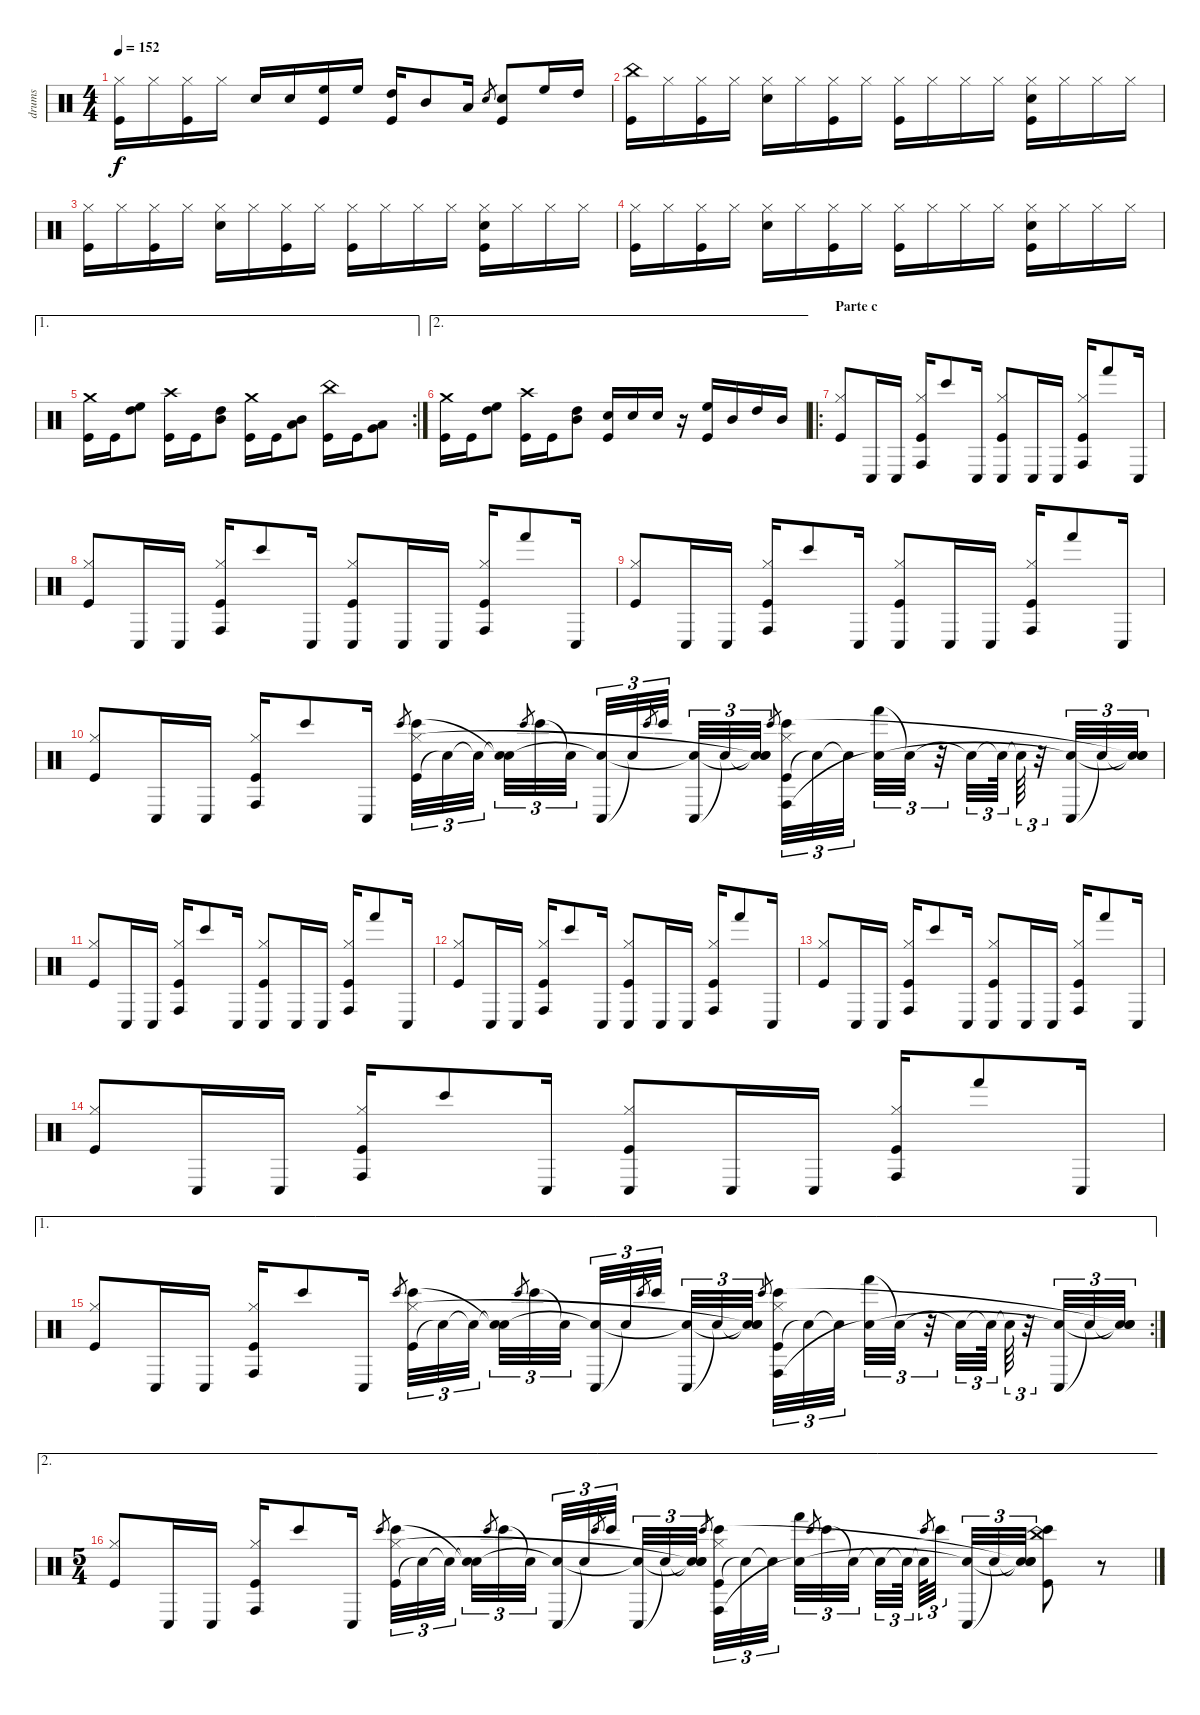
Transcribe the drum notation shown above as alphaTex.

\track ("drums" "drums") {instrument percussion}
\staff {score}
\articulation defaults
\ts (4 4)
\tempo 152
\clef neutral
\ks c
("Kick (hit)" "Hi-Hat (closed)").16{dy f} "Hi-Hat (closed)".16 ("Kick (hit)" "Hi-Hat (closed)").16 "Hi-Hat (closed)".16 "Snare (hit) 2".16 "Snare (hit) 2".16 ("Kick (hit)" "High Floor Tom (hit)").16 "High Floor Tom (hit)".16 ("Kick (hit)" "High Tom (hit)").16 "Mid Tom (hit)".8 "Low Tom (hit)".16 "Snare (hit) 2".8{gr} ("Kick (hit)" "Snare (hit) 2").8 "High Floor Tom (hit)".16 "High Tom (hit)".16 |
("Kick (hit)" "China (hit)").16 "Hi-Hat (closed)".16 ("Kick (hit)" "Hi-Hat (closed)").16 "Hi-Hat (closed)".16 ("Snare (hit) 2" "Hi-Hat (closed)").16 "Hi-Hat (closed)".16 ("Kick (hit)" "Hi-Hat (closed)").16 "Hi-Hat (closed)".16 ("Kick (hit)" "Hi-Hat (closed)").16 "Hi-Hat (closed)".16 "Hi-Hat (closed)".16 "Hi-Hat (closed)".16 ("Kick (hit)" "Snare (hit) 2" "Hi-Hat (closed)").16 "Hi-Hat (closed)".16 "Hi-Hat (closed)".16 "Hi-Hat (closed)".16 |
("Kick (hit)" "Hi-Hat (closed)").16 "Hi-Hat (closed)".16 ("Kick (hit)" "Hi-Hat (closed)").16 "Hi-Hat (closed)".16 ("Snare (hit) 2" "Hi-Hat (closed)").16 "Hi-Hat (closed)".16 ("Kick (hit)" "Hi-Hat (closed)").16 "Hi-Hat (closed)".16 ("Kick (hit)" "Hi-Hat (closed)").16 "Hi-Hat (closed)".16 "Hi-Hat (closed)".16 "Hi-Hat (closed)".16 ("Kick (hit)" "Snare (hit) 2" "Hi-Hat (closed)").16 "Hi-Hat (closed)".16 "Hi-Hat (closed)".16 "Hi-Hat (closed)".16 |
("Kick (hit)" "Hi-Hat (closed)").16 "Hi-Hat (closed)".16 ("Kick (hit)" "Hi-Hat (closed)").16 "Hi-Hat (closed)".16 ("Snare (hit) 2" "Hi-Hat (closed)").16 "Hi-Hat (closed)".16 ("Kick (hit)" "Hi-Hat (closed)").16 "Hi-Hat (closed)".16 ("Kick (hit)" "Hi-Hat (closed)").16 "Hi-Hat (closed)".16 "Hi-Hat (closed)".16 "Hi-Hat (closed)".16 ("Kick (hit)" "Snare (hit) 2" "Hi-Hat (closed)").16 "Hi-Hat (closed)".16 "Hi-Hat (closed)".16 "Hi-Hat (closed)".16 |
\ae 1
\rc 2
("Kick (hit)" "Crash medium (hit)").16 "Kick (hit)".16 ("High Tom (hit)" "High Floor Tom (hit)").8 ("Kick (hit)" "Crash high (hit)").16 "Kick (hit)".16 ("Mid Tom (hit)" "High Tom (hit)").8 ("Kick (hit)" "Crash medium (hit)").16 "Kick (hit)".16 ("Low Tom (hit)" "Mid Tom (hit)").8 ("Kick (hit)" "China (hit)").16 "Kick (hit)".16 ("Very Low Tom (hit)" "Low Tom (hit)").8 |
\ae 2
("Kick (hit)" "Crash medium (hit)").16 "Kick (hit)".16 ("High Tom (hit)" "High Floor Tom (hit)").8 ("Kick (hit)" "Crash high (hit)").16 "Kick (hit)".16 ("Mid Tom (hit)" "High Tom (hit)").8 ("Kick (hit)" "Snare (hit) 2").16 "Snare (hit) 2".16 "Snare (hit) 2".16 r.16 ("Kick (hit)" "High Floor Tom (hit)").16 "Mid Tom (hit)".16 "High Tom (hit)".16 "Mid Tom (hit)".16 |
\ro
\section ("" "Parte c")
("Kick (hit)" "Hi-Hat (closed)").8 "Conga low (hit)".16 "Conga low (hit)".16 ("Kick (hit)" "Conga high (hit)" "Hi-Hat (closed)").16 "Bongo High (hit)".8 "Conga low (hit)".16 ("Kick (hit)" "Conga low (hit)" "Hi-Hat (closed)").8 "Conga low (hit)".16 "Conga low (hit)".16 ("Kick (hit)" "Conga high (hit)" "Hi-Hat (closed)").16 "Hand (hit)".8 "Conga low (hit)".16 |
("Kick (hit)" "Hi-Hat (closed)").8 "Conga low (hit)".16 "Conga low (hit)".16 ("Kick (hit)" "Conga high (hit)" "Hi-Hat (closed)").16 "Bongo High (hit)".8 "Conga low (hit)".16 ("Kick (hit)" "Conga low (hit)" "Hi-Hat (closed)").8 "Conga low (hit)".16 "Conga low (hit)".16 ("Kick (hit)" "Conga high (hit)" "Hi-Hat (closed)").16 "Hand (hit)".8 "Conga low (hit)".16 |
("Kick (hit)" "Hi-Hat (closed)").8 "Conga low (hit)".16 "Conga low (hit)".16 ("Kick (hit)" "Conga high (hit)" "Hi-Hat (closed)").16 "Bongo High (hit)".8 "Conga low (hit)".16 ("Kick (hit)" "Conga low (hit)" "Hi-Hat (closed)").8 "Conga low (hit)".16 "Conga low (hit)".16 ("Kick (hit)" "Conga high (hit)" "Hi-Hat (closed)").16 "Hand (hit)".8 "Conga low (hit)".16 |
("Kick (hit)" "Hi-Hat (closed)").8 "Conga low (hit)".16 "Conga low (hit)".16 ("Kick (hit)" "Conga high (hit)" "Hi-Hat (closed)").16 "Bongo High (hit)".8 "Conga low (hit)".16 "Bongo High (hit)".8{gr} ("Kick (hit)" "Bongo High (hit)" "Hi-Hat (closed)").32{tu (3 2)} "Snare (hit)"{t}.32{tu (3 2)} "Snare (hit)"{t}.32{tu (3 2)} ("Snare (hit)"{t} "Snare (hit)"{t}).32{tu (3 2)} "Bongo High (hit)".8{gr} "Bongo High (hit)".32{tu (3 2)} "Snare (hit)"{t}.32{tu (3 2)} ("Conga low (hit)" "Snare (hit)"{t}).32{tu (3 2)} "Snare (hit)"{t}.32{tu (3 2)} "Bongo High (hit)".8{gr} "Bongo High (hit)".32{tu (3 2)} ("Conga low (hit)" "Snare (hit)"{t}).32{tu (3 2)} "Snare (hit)"{t}.32{tu (3 2)} ("Snare (hit)"{t} "Snare (hit)"{t} "Snare (hit)"{t}).32{tu (3 2)} "Bongo High (hit)".8{gr} ("Kick (hit)" "Conga high (hit)" "Bongo High (hit)" "Hi-Hat (closed)").32{tu (3 2)} "Snare (hit)"{t}.32{tu (3 2)} "Snare (hit)"{t}.32{tu (3 2)} ("Hand (hit)" "Snare (hit)"{t}).32{tu (3 2)} "Snare (hit)"{t}.32{tu (3 2)} r.32{tu (3 2)} "Snare (hit)"{t}.32{tu (3 2)} "Snare (hit)"{t}.64{tu (3 2)} "Snare (hit)"{t}.64{tu (3 2)} r.32{tu (3 2)} ("Conga low (hit)" "Snare (hit)"{t}).32{tu (3 2)} "Snare (hit)"{t}.32{tu (3 2)} ("Snare (hit)"{t} "Snare (hit)"{t} "Snare (hit)"{t}).32{tu (3 2)} |
("Kick (hit)" "Hi-Hat (closed)").8 "Conga low (hit)".16 "Conga low (hit)".16 ("Kick (hit)" "Conga high (hit)" "Hi-Hat (closed)").16 "Bongo High (hit)".8 "Conga low (hit)".16 ("Kick (hit)" "Conga low (hit)" "Hi-Hat (closed)").8 "Conga low (hit)".16 "Conga low (hit)".16 ("Kick (hit)" "Conga high (hit)" "Hi-Hat (closed)").16 "Hand (hit)".8 "Conga low (hit)".16 |
("Kick (hit)" "Hi-Hat (closed)").8 "Conga low (hit)".16 "Conga low (hit)".16 ("Kick (hit)" "Conga high (hit)" "Hi-Hat (closed)").16 "Bongo High (hit)".8 "Conga low (hit)".16 ("Kick (hit)" "Conga low (hit)" "Hi-Hat (closed)").8 "Conga low (hit)".16 "Conga low (hit)".16 ("Kick (hit)" "Conga high (hit)" "Hi-Hat (closed)").16 "Hand (hit)".8 "Conga low (hit)".16 |
("Kick (hit)" "Hi-Hat (closed)").8 "Conga low (hit)".16 "Conga low (hit)".16 ("Kick (hit)" "Conga high (hit)" "Hi-Hat (closed)").16 "Bongo High (hit)".8 "Conga low (hit)".16 ("Kick (hit)" "Conga low (hit)" "Hi-Hat (closed)").8 "Conga low (hit)".16 "Conga low (hit)".16 ("Kick (hit)" "Conga high (hit)" "Hi-Hat (closed)").16 "Hand (hit)".8 "Conga low (hit)".16 |
("Kick (hit)" "Hi-Hat (closed)").8 "Conga low (hit)".16 "Conga low (hit)".16 ("Kick (hit)" "Conga high (hit)" "Hi-Hat (closed)").16 "Bongo High (hit)".8 "Conga low (hit)".16 ("Kick (hit)" "Conga low (hit)" "Hi-Hat (closed)").8 "Conga low (hit)".16 "Conga low (hit)".16 ("Kick (hit)" "Conga high (hit)" "Hi-Hat (closed)").16 "Hand (hit)".8 "Conga low (hit)".16 |
\ae 1
\rc 2
("Kick (hit)" "Hi-Hat (closed)").8 "Conga low (hit)".16 "Conga low (hit)".16 ("Kick (hit)" "Conga high (hit)" "Hi-Hat (closed)").16 "Bongo High (hit)".8 "Conga low (hit)".16 "Bongo High (hit)".8{gr} ("Kick (hit)" "Bongo High (hit)" "Hi-Hat (closed)").32{tu (3 2)} "Snare (hit)"{t}.32{tu (3 2)} "Snare (hit)"{t}.32{tu (3 2)} ("Snare (hit)"{t} "Snare (hit)"{t}).32{tu (3 2)} "Bongo High (hit)".8{gr} "Bongo High (hit)".32{tu (3 2)} "Snare (hit)"{t}.32{tu (3 2)} ("Conga low (hit)" "Snare (hit)"{t}).32{tu (3 2)} "Snare (hit)"{t}.32{tu (3 2)} "Bongo High (hit)".8{gr} "Bongo High (hit)".32{tu (3 2)} ("Conga low (hit)" "Snare (hit)"{t}).32{tu (3 2)} "Snare (hit)"{t}.32{tu (3 2)} ("Snare (hit)"{t} "Snare (hit)"{t} "Snare (hit)"{t}).32{tu (3 2)} "Bongo High (hit)".8{gr} ("Kick (hit)" "Conga high (hit)" "Bongo High (hit)" "Hi-Hat (closed)").32{tu (3 2)} "Snare (hit)"{t}.32{tu (3 2)} "Snare (hit)"{t}.32{tu (3 2)} ("Hand (hit)" "Snare (hit)"{t}).32{tu (3 2)} "Snare (hit)"{t}.32{tu (3 2)} r.32{tu (3 2)} "Snare (hit)"{t}.32{tu (3 2)} "Snare (hit)"{t}.64{tu (3 2)} "Snare (hit)"{t}.64{tu (3 2)} r.32{tu (3 2)} ("Conga low (hit)" "Snare (hit)"{t}).32{tu (3 2)} "Snare (hit)"{t}.32{tu (3 2)} ("Snare (hit)"{t} "Snare (hit)"{t} "Snare (hit)"{t}).32{tu (3 2)} |
\ae 2
\ts (5 4)
("Kick (hit)" "Hi-Hat (closed)").8 "Conga low (hit)".16 "Conga low (hit)".16 ("Kick (hit)" "Conga high (hit)" "Hi-Hat (closed)").16 "Bongo High (hit)".8 "Conga low (hit)".16 "Bongo High (hit)".8{gr} ("Kick (hit)" "Bongo High (hit)" "Hi-Hat (closed)").32{tu (3 2)} "Snare (hit)"{t}.32{tu (3 2)} "Snare (hit)"{t}.32{tu (3 2)} ("Snare (hit)"{t} "Snare (hit)"{t}).32{tu (3 2)} "Bongo High (hit)".8{gr} "Bongo High (hit)".32{tu (3 2)} "Snare (hit)"{t}.32{tu (3 2)} ("Conga low (hit)" "Snare (hit)"{t}).32{tu (3 2)} "Snare (hit)"{t}.32{tu (3 2)} "Bongo High (hit)".8{gr} "Bongo High (hit)".32{tu (3 2)} ("Conga low (hit)" "Snare (hit)"{t}).32{tu (3 2)} "Snare (hit)"{t}.32{tu (3 2)} ("Snare (hit)"{t} "Snare (hit)"{t} "Snare (hit)"{t}).32{tu (3 2)} "Bongo High (hit)".8{gr} ("Kick (hit)" "Conga high (hit)" "Bongo High (hit)" "Hi-Hat (closed)").32{tu (3 2)} "Snare (hit)"{t}.32{tu (3 2)} "Snare (hit)"{t}.32{tu (3 2)} ("Hand (hit)" "Snare (hit)"{t}).32{tu (3 2)} "Bongo High (hit)".8{gr} "Bongo High (hit)".32{tu (3 2)} "Snare (hit)"{t}.32{tu (3 2)} "Snare (hit)"{t}.32{tu (3 2)} "Snare (hit)"{t}.64{tu (3 2)} "Snare (hit)"{t}.64{tu (3 2)} "Bongo High (hit)".8{gr} "Bongo High (hit)".32{tu (3 2)} ("Conga low (hit)" "Snare (hit)"{t}).32{tu (3 2)} "Snare (hit)"{t}.32{tu (3 2)} ("Snare (hit)"{t} "Snare (hit)"{t} "Snare (hit)"{t}).32{tu (3 2)} ("Kick (hit)" "Bongo High (hit)" "China (hit)").8 r.8
